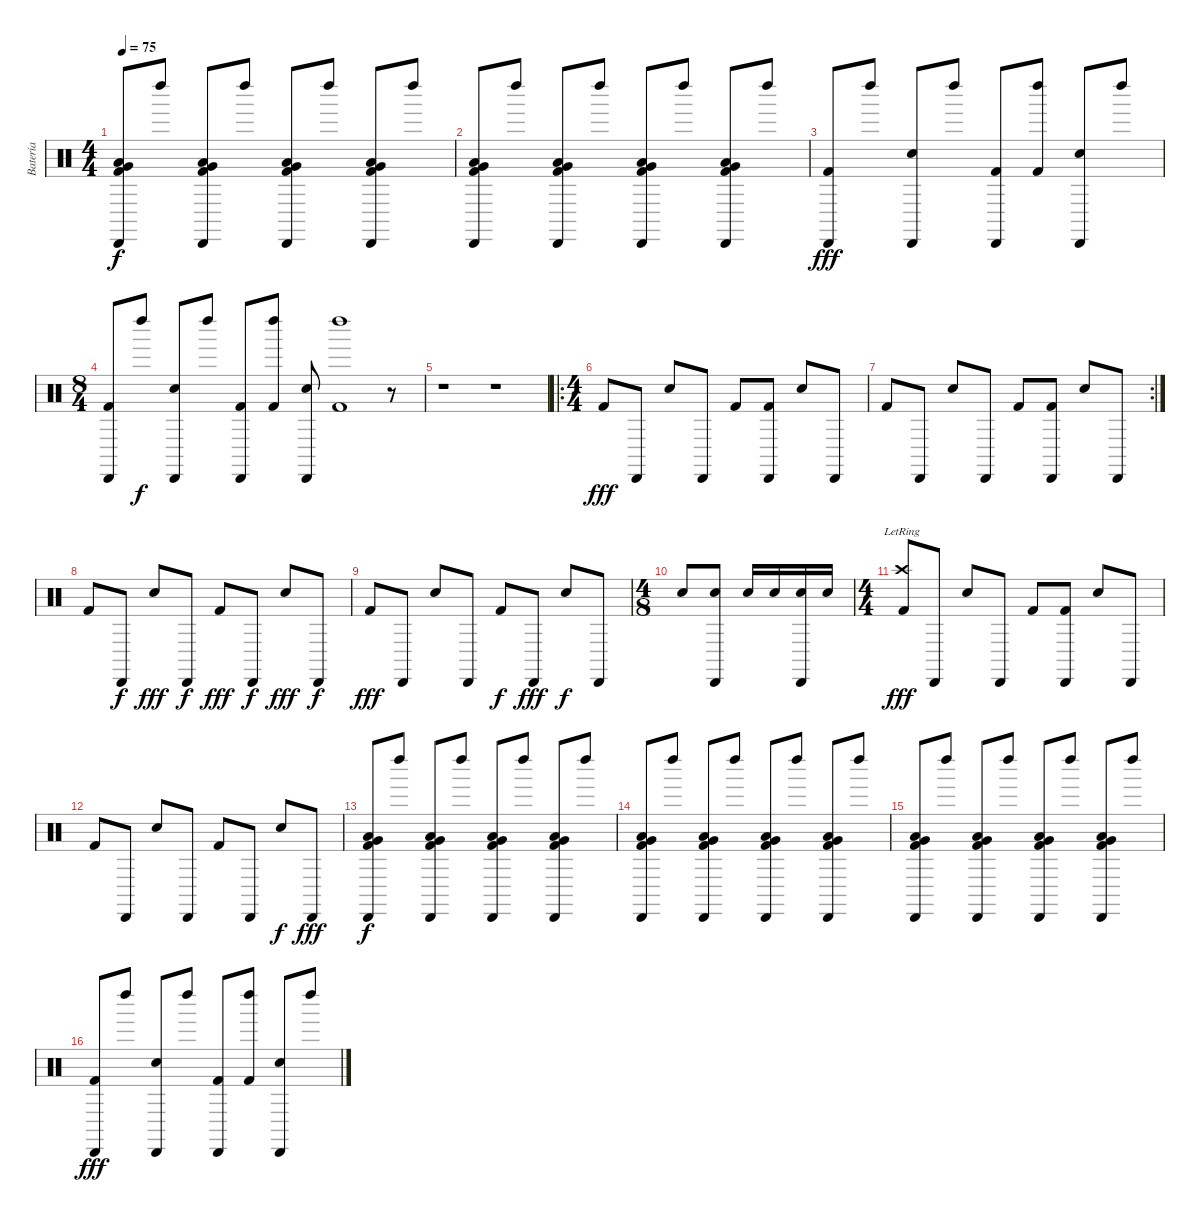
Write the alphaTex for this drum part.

\track ("Batería" "Batería") {instrument percussion}
\staff {score}
\articulation defaults
\ts (4 4)
\tempo 75
\clef neutral
\ks c
("Cabasa (hit)" "Very Low Tom (hit)" "Low Floor Tom (hit)" "Kick (hit) 2").8{dy f} "Left Maraca (hit)".8 ("Cabasa (hit)" "Very Low Tom (hit)" "Low Floor Tom (hit)" "Kick (hit) 2").8 "Left Maraca (hit)".8 ("Cabasa (hit)" "Very Low Tom (hit)" "Low Floor Tom (hit)" "Kick (hit) 2").8 "Left Maraca (hit)".8 ("Cabasa (hit)" "Very Low Tom (hit)" "Low Floor Tom (hit)" "Kick (hit) 2").8 "Left Maraca (hit)".8 |
("Cabasa (hit)" "Very Low Tom (hit)" "Low Floor Tom (hit)" "Kick (hit) 2").8 "Left Maraca (hit)".8 ("Cabasa (hit)" "Very Low Tom (hit)" "Low Floor Tom (hit)" "Kick (hit) 2").8 "Left Maraca (hit)".8 ("Cabasa (hit)" "Very Low Tom (hit)" "Low Floor Tom (hit)" "Kick (hit) 2").8 "Left Maraca (hit)".8 ("Cabasa (hit)" "Very Low Tom (hit)" "Low Floor Tom (hit)" "Kick (hit) 2").8 "Left Maraca (hit)".8 |
("Cabasa (hit)" "Kick (hit) 2").8{dy fff volume 11} "Left Maraca (hit)".8 ("Cabasa (hit)" "Electric Snare (hit)").8 "Left Maraca (hit)".8 ("Cabasa (hit)" "Kick (hit) 2").8 ("Left Maraca (hit)" "Kick (hit) 2").8 ("Cabasa (hit)" "Electric Snare (hit)").8 "Left Maraca (hit)".8 |
\ts (8 4)
("Cabasa (hit)" "Kick (hit) 2").8 "Left Maraca (hit)".8{dy f} ("Cabasa (hit)" "Electric Snare (hit)").8 "Left Maraca (hit)".8 ("Cabasa (hit)" "Kick (hit) 2").8 ("Left Maraca (hit)" "Kick (hit) 2").8 ("Cabasa (hit)" "Electric Snare (hit)").8 ("Left Maraca (hit)" "Kick (hit) 2").1 r.8 |
r.1 r.1 |
\ro
\ts (4 4)
"Kick (hit) 2".8{dy fff} "Cabasa (hit)".8 "Electric Snare (hit)".8 "Cabasa (hit)".8 "Kick (hit) 2".8 ("Cabasa (hit)" "Kick (hit) 2").8 "Electric Snare (hit)".8 "Cabasa (hit)".8 |
\rc 2 "Kick (hit) 2".8 "Cabasa (hit)".8 "Electric Snare (hit)".8 "Cabasa (hit)".8 "Kick (hit) 2".8
("Cabasa (hit)" "Kick (hit) 2").8 "Electric Snare (hit)".8 "Cabasa (hit)".8 |
"Kick (hit) 2".8 "Cabasa (hit)".8{dy f} "Electric Snare (hit)".8{dy fff} "Cabasa (hit)".8{dy f} "Kick (hit) 2".8{dy fff} "Cabasa (hit)".8{dy f} "Electric Snare (hit)".8{dy fff} "Cabasa (hit)".8{dy f} |
"Kick (hit) 2".8{dy fff} "Cabasa (hit)".8 "Electric Snare (hit)".8 "Cabasa (hit)".8 "Kick (hit) 2".8{dy f} "Cabasa (hit)".8{dy fff} "Electric Snare (hit)".8{dy f} "Cabasa (hit)".8 |
\ts (4 8)
"Electric Snare (hit)".8{bd 30} ("Cabasa (hit)" "Electric Snare (hit)").8{bd 30} "Electric Snare (hit)".16 "Electric Snare (hit)".16 ("Cabasa (hit)" "Electric Snare (hit)").16 "Electric Snare (hit)".16 |
\ts (4 4)
("Crash high (hit)"{lr} "Kick (hit) 2").8{dy fff} "Cabasa (hit)".8 "Electric Snare (hit)".8 "Cabasa (hit)".8 "Kick (hit) 2".8 ("Cabasa (hit)" "Kick (hit) 2").8 "Electric Snare (hit)".8 "Cabasa (hit)".8 |
"Kick (hit) 2".8 "Cabasa (hit)".8 "Electric Snare (hit)".8 "Cabasa (hit)".8 "Kick (hit) 2".8 "Cabasa (hit)".8 "Electric Snare (hit)".8{dy f} "Cabasa (hit)".8{dy fff} |
("Cabasa (hit)" "Very Low Tom (hit)" "Low Floor Tom (hit)" "Kick (hit) 2").8{dy f volume 14} "Left Maraca (hit)".8 ("Cabasa (hit)" "Very Low Tom (hit)" "Low Floor Tom (hit)" "Kick (hit) 2").8 "Left Maraca (hit)".8 ("Cabasa (hit)" "Very Low Tom (hit)" "Low Floor Tom (hit)" "Kick (hit) 2").8 "Left Maraca (hit)".8 ("Cabasa (hit)" "Very Low Tom (hit)" "Low Floor Tom (hit)" "Kick (hit) 2").8 "Left Maraca (hit)".8 |
("Cabasa (hit)" "Very Low Tom (hit)" "Low Floor Tom (hit)" "Kick (hit) 2").8 "Left Maraca (hit)".8 ("Cabasa (hit)" "Very Low Tom (hit)" "Low Floor Tom (hit)" "Kick (hit) 2").8 "Left Maraca (hit)".8 ("Cabasa (hit)" "Very Low Tom (hit)" "Low Floor Tom (hit)" "Kick (hit) 2").8 "Left Maraca (hit)".8 ("Cabasa (hit)" "Very Low Tom (hit)" "Low Floor Tom (hit)" "Kick (hit) 2").8 "Left Maraca (hit)".8 |
("Cabasa (hit)" "Very Low Tom (hit)" "Low Floor Tom (hit)" "Kick (hit) 2").8 "Left Maraca (hit)".8 ("Cabasa (hit)" "Very Low Tom (hit)" "Low Floor Tom (hit)" "Kick (hit) 2").8 "Left Maraca (hit)".8 ("Cabasa (hit)" "Very Low Tom (hit)" "Low Floor Tom (hit)" "Kick (hit) 2").8 "Left Maraca (hit)".8 ("Cabasa (hit)" "Very Low Tom (hit)" "Low Floor Tom (hit)" "Kick (hit) 2").8 "Left Maraca (hit)".8 |
("Cabasa (hit)" "Kick (hit) 2").8{dy fff volume 11} "Left Maraca (hit)".8 ("Cabasa (hit)" "Electric Snare (hit)").8 "Left Maraca (hit)".8 ("Cabasa (hit)" "Kick (hit) 2").8 ("Left Maraca (hit)" "Kick (hit) 2").8 ("Cabasa (hit)" "Electric Snare (hit)").8 "Left Maraca (hit)".8
